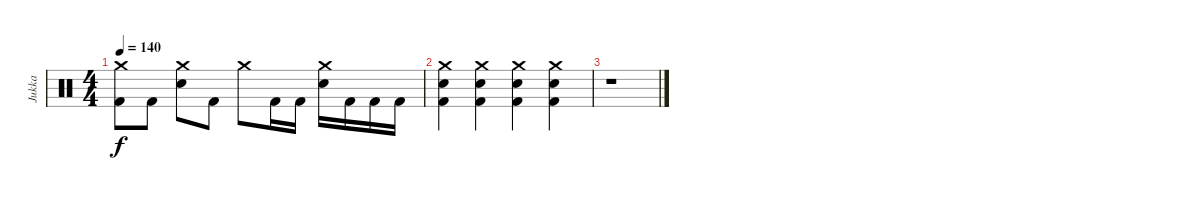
\track ("Jukka" "Jukka") {instrument percussion}
\staff {score}
\articulation defaults
\ts (4 4)
\tempo 140
\clef neutral
\ks c
("Crash medium (hit)" "Kick (hit) 2").8{dy f} "Kick (hit) 2".8 ("Crash medium (hit)" "Electric Snare (hit)").8 "Kick (hit) 2".8 "Crash medium (hit)".8 "Kick (hit) 2".16 "Kick (hit) 2".16 ("Crash medium (hit)" "Electric Snare (hit)").16 "Kick (hit) 2".16 "Kick (hit) 2".16 "Kick (hit) 2".16 |
("Crash medium (hit)" "Electric Snare (hit)" "Kick (hit) 2").4 ("Crash medium (hit)" "Electric Snare (hit)" "Kick (hit) 2").4 ("Crash medium (hit)" "Electric Snare (hit)" "Kick (hit) 2").4 ("Crash medium (hit)" "Electric Snare (hit)" "Kick (hit) 2").4 |
\ks aminor
r.1
